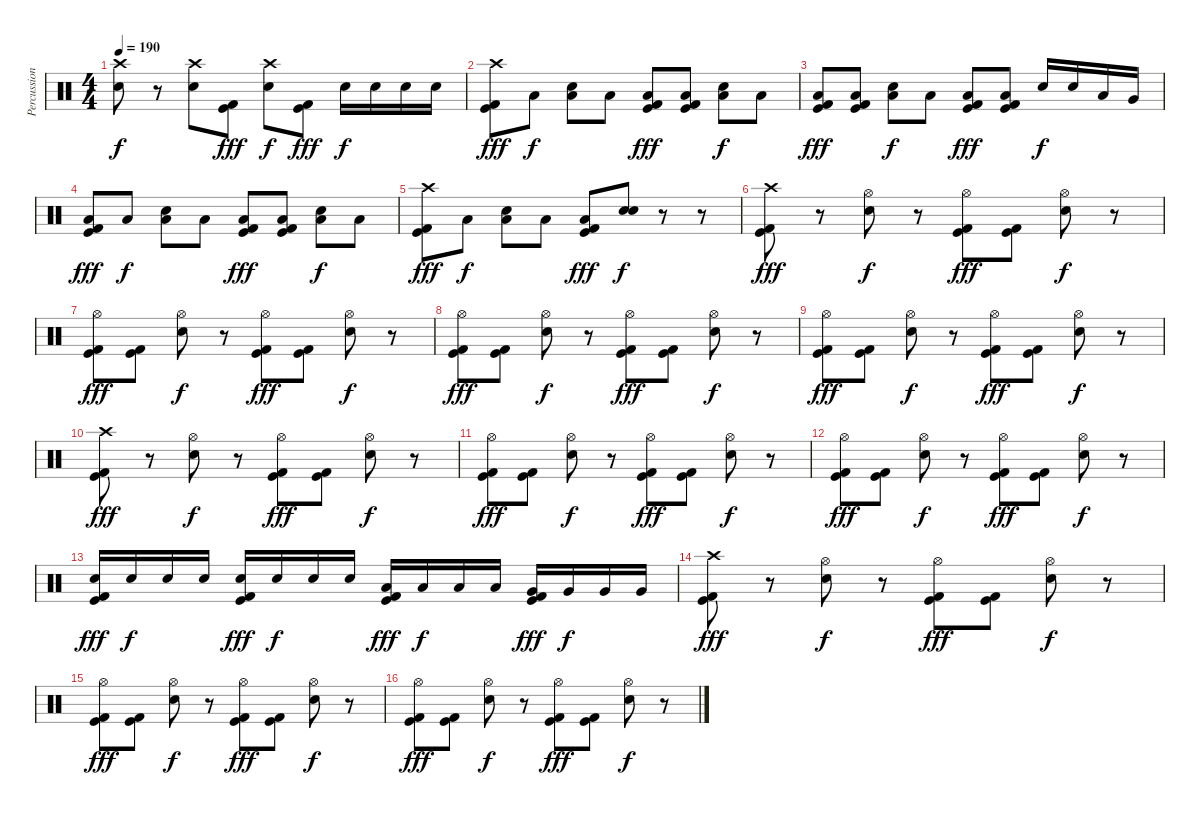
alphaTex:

\track ("Percussion" "Percussion") {instrument percussion}
\staff {score}
\articulation defaults
\ts (4 4)
\tempo 190
\clef neutral
\ks c
("Crash high (hit)" "Electric Snare (hit)").8{dy f} r.8 ("Crash high (hit)" "Electric Snare (hit)").8 ("Kick (hit)" "Kick (hit) 2").8{dy fff} ("Crash high (hit)" "Electric Snare (hit)").8{dy f} ("Kick (hit)" "Kick (hit) 2").8{dy fff} "Electric Snare (hit)".16{dy f} "Electric Snare (hit)".16 "Electric Snare (hit)".16 "Electric Snare (hit)".16 |
("Crash high (hit)" "Kick (hit)" "Kick (hit) 2").8{dy fff} "Low Floor Tom (hit)".8{dy f} ("Low Floor Tom (hit)" "Electric Snare (hit)").8 "Low Floor Tom (hit)".8 ("Low Floor Tom (hit)" "Kick (hit)" "Kick (hit) 2").8{dy fff} ("Low Floor Tom (hit)" "Kick (hit)" "Kick (hit) 2").8 ("Low Floor Tom (hit)" "Electric Snare (hit)").8{dy f} "Low Floor Tom (hit)".8 |
("Low Floor Tom (hit)" "Kick (hit)" "Kick (hit) 2").8{dy fff} ("Low Floor Tom (hit)" "Kick (hit)" "Kick (hit) 2").8 ("Low Floor Tom (hit)" "Electric Snare (hit)").8{dy f} "Low Floor Tom (hit)".8 ("Low Floor Tom (hit)" "Kick (hit)" "Kick (hit) 2").8{dy fff} ("Low Floor Tom (hit)" "Kick (hit)" "Kick (hit) 2").8 "Electric Snare (hit)".16{dy f} "Electric Snare (hit)".16 "Low Tom (hit)".16 "Very Low Tom (hit)".16 |
("Low Floor Tom (hit)" "Kick (hit)" "Kick (hit) 2").8{dy fff} "Low Floor Tom (hit)".8{dy f} ("Low Floor Tom (hit)" "Electric Snare (hit)").8 "Low Floor Tom (hit)".8 ("Low Floor Tom (hit)" "Kick (hit)" "Kick (hit) 2").8{dy fff} ("Low Floor Tom (hit)" "Kick (hit)" "Kick (hit) 2").8 ("Low Floor Tom (hit)" "Electric Snare (hit)").8{dy f} "Low Floor Tom (hit)".8 |
("Crash high (hit)" "Kick (hit)" "Kick (hit) 2").8{dy fff} "Low Floor Tom (hit)".8{dy f} ("Low Floor Tom (hit)" "Electric Snare (hit)").8 "Low Floor Tom (hit)".8 ("Low Floor Tom (hit)" "Kick (hit)" "Kick (hit) 2").8{dy fff} ("Electric Snare (hit)" "Electric Snare (hit)").8{bu 60 dy f} r.8 r.8 |
("Crash high (hit)" "Kick (hit)" "Kick (hit) 2").8{dy fff} r.8 ("Hi-Hat (open)" "Electric Snare (hit)").8{dy f} r.8 ("Hi-Hat (open)" "Kick (hit)" "Kick (hit) 2").8{dy fff} ("Kick (hit)" "Kick (hit) 2").8 ("Hi-Hat (open)" "Electric Snare (hit)").8{dy f} r.8 |
("Hi-Hat (open)" "Kick (hit)" "Kick (hit) 2").8{dy fff} ("Kick (hit)" "Kick (hit) 2").8 ("Hi-Hat (open)" "Electric Snare (hit)").8{dy f} r.8 ("Hi-Hat (open)" "Kick (hit)" "Kick (hit) 2").8{dy fff} ("Kick (hit)" "Kick (hit) 2").8 ("Hi-Hat (open)" "Electric Snare (hit)").8{dy f} r.8 |
("Hi-Hat (open)" "Kick (hit)" "Kick (hit) 2").8{dy fff} ("Kick (hit)" "Kick (hit) 2").8 ("Hi-Hat (open)" "Electric Snare (hit)").8{dy f} r.8 ("Hi-Hat (open)" "Kick (hit)" "Kick (hit) 2").8{dy fff} ("Kick (hit)" "Kick (hit) 2").8 ("Hi-Hat (open)" "Electric Snare (hit)").8{dy f} r.8 |
("Hi-Hat (open)" "Kick (hit)" "Kick (hit) 2").8{dy fff} ("Kick (hit)" "Kick (hit) 2").8 ("Hi-Hat (open)" "Electric Snare (hit)").8{dy f} r.8 ("Hi-Hat (open)" "Kick (hit)" "Kick (hit) 2").8{dy fff} ("Kick (hit)" "Kick (hit) 2").8 ("Hi-Hat (open)" "Electric Snare (hit)").8{dy f} r.8 |
("Crash high (hit)" "Kick (hit)" "Kick (hit) 2").8{dy fff} r.8 ("Hi-Hat (open)" "Electric Snare (hit)").8{dy f} r.8 ("Hi-Hat (open)" "Kick (hit)" "Kick (hit) 2").8{dy fff} ("Kick (hit)" "Kick (hit) 2").8 ("Hi-Hat (open)" "Electric Snare (hit)").8{dy f} r.8 |
("Hi-Hat (open)" "Kick (hit)" "Kick (hit) 2").8{dy fff} ("Kick (hit)" "Kick (hit) 2").8 ("Hi-Hat (open)" "Electric Snare (hit)").8{dy f} r.8 ("Hi-Hat (open)" "Kick (hit)" "Kick (hit) 2").8{dy fff} ("Kick (hit)" "Kick (hit) 2").8 ("Hi-Hat (open)" "Electric Snare (hit)").8{dy f} r.8 |
("Hi-Hat (open)" "Kick (hit)" "Kick (hit) 2").8{dy fff} ("Kick (hit)" "Kick (hit) 2").8 ("Hi-Hat (open)" "Electric Snare (hit)").8{dy f} r.8 ("Hi-Hat (open)" "Kick (hit)" "Kick (hit) 2").8{dy fff} ("Kick (hit)" "Kick (hit) 2").8 ("Hi-Hat (open)" "Electric Snare (hit)").8{dy f} r.8 |
("Electric Snare (hit)" "Kick (hit)" "Kick (hit) 2").16{dy fff} "Electric Snare (hit)".16{dy f} "Electric Snare (hit)".16 "Electric Snare (hit)".16 ("Electric Snare (hit)" "Kick (hit)" "Kick (hit) 2").16{dy fff} "Electric Snare (hit)".16{dy f} "Electric Snare (hit)".16 "Electric Snare (hit)".16 ("Low Tom (hit)" "Kick (hit)" "Kick (hit) 2").16{dy fff} "Low Tom (hit)".16{dy f} "Low Tom (hit)".16 "Low Tom (hit)".16 ("Very Low Tom (hit)" "Kick (hit)" "Kick (hit) 2").16{dy fff} "Very Low Tom (hit)".16{dy f} "Very Low Tom (hit)".16 "Very Low Tom (hit)".16 |
("Crash high (hit)" "Kick (hit)" "Kick (hit) 2").8{dy fff} r.8 ("Hi-Hat (open)" "Electric Snare (hit)").8{dy f} r.8 ("Hi-Hat (open)" "Kick (hit)" "Kick (hit) 2").8{dy fff} ("Kick (hit)" "Kick (hit) 2").8 ("Hi-Hat (open)" "Electric Snare (hit)").8{dy f} r.8 |
("Hi-Hat (open)" "Kick (hit)" "Kick (hit) 2").8{dy fff} ("Kick (hit)" "Kick (hit) 2").8 ("Hi-Hat (open)" "Electric Snare (hit)").8{dy f} r.8 ("Hi-Hat (open)" "Kick (hit)" "Kick (hit) 2").8{dy fff} ("Kick (hit)" "Kick (hit) 2").8 ("Hi-Hat (open)" "Electric Snare (hit)").8{dy f} r.8 |
("Hi-Hat (open)" "Kick (hit)" "Kick (hit) 2").8{dy fff} ("Kick (hit)" "Kick (hit) 2").8 ("Hi-Hat (open)" "Electric Snare (hit)").8{dy f} r.8 ("Hi-Hat (open)" "Kick (hit)" "Kick (hit) 2").8{dy fff} ("Kick (hit)" "Kick (hit) 2").8 ("Hi-Hat (open)" "Electric Snare (hit)").8{dy f} r.8
